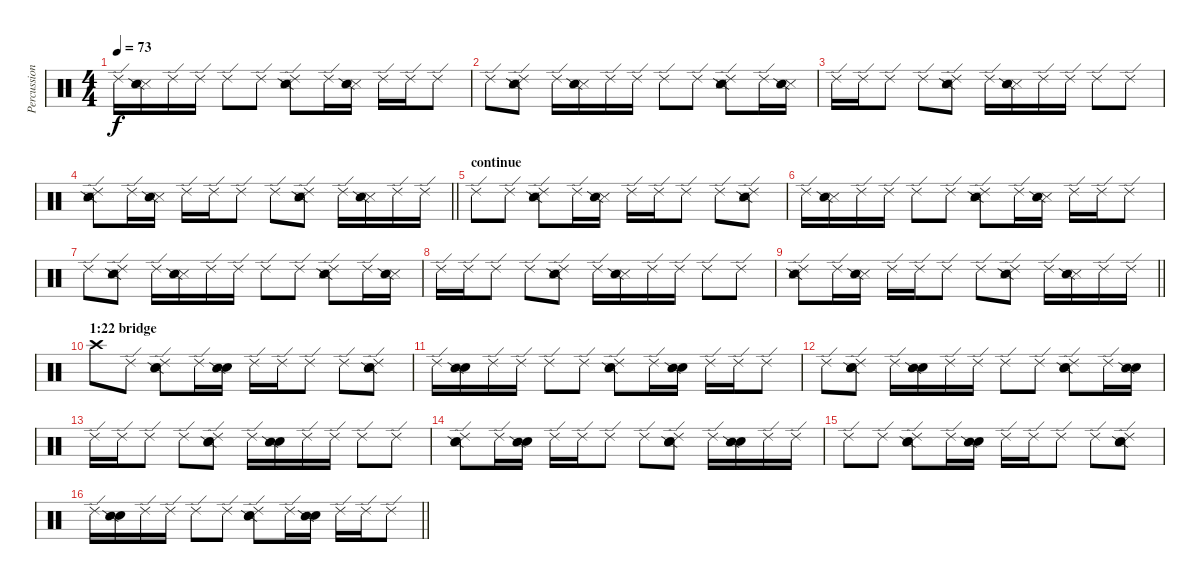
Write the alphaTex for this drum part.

\track ("Percussion" "Percussion") {instrument percussion}
\staff {score}
\articulation defaults
\ts (4 4)
\tempo 73
\clef neutral
\ks c "Ride (edge) 2".16{dy f}
("Snare (side stick) 3" "Snare (side stick) 2").16 "Ride (edge) 2".16 "Ride (edge) 2".16 "Ride (edge) 2".8 "Ride (edge) 2".8 ("Ride (edge) 2" "Snare (side stick) 3" "Snare (side stick) 2").8 "Ride (edge) 2".16 ("Snare (side stick) 3" "Snare (side stick) 2").16 "Ride (edge) 2".16 "Ride (edge) 2".16 "Ride (edge) 2".8 |
"Ride (edge) 2".8 ("Ride (edge) 2" "Snare (side stick) 3" "Snare (side stick) 2").8 "Ride (edge) 2".16 ("Snare (side stick) 3" "Snare (side stick) 2").16 "Ride (edge) 2".16 "Ride (edge) 2".16 "Ride (edge) 2".8 "Ride (edge) 2".8 ("Ride (edge) 2" "Snare (side stick) 3" "Snare (side stick) 2").8 "Ride (edge) 2".16 ("Snare (side stick) 3" "Snare (side stick) 2").16 |
"Ride (edge) 2".16 "Ride (edge) 2".16 "Ride (edge) 2".8 "Ride (edge) 2".8 ("Ride (edge) 2" "Snare (side stick) 3" "Snare (side stick) 2").8 "Ride (edge) 2".16 ("Snare (side stick) 3" "Snare (side stick) 2").16 "Ride (edge) 2".16 "Ride (edge) 2".16 "Ride (edge) 2".8 "Ride (edge) 2".8 |
\barLineRight lightlight
("Ride (edge) 2" "Snare (side stick) 3" "Snare (side stick) 2").8 "Ride (edge) 2".16 ("Snare (side stick) 3" "Snare (side stick) 2").16 "Ride (edge) 2".16 "Ride (edge) 2".16 "Ride (edge) 2".8 "Ride (edge) 2".8 ("Ride (edge) 2" "Snare (side stick) 3" "Snare (side stick) 2").8 "Ride (edge) 2".16 ("Snare (side stick) 3" "Snare (side stick) 2").16 "Ride (edge) 2".16 "Ride (edge) 2".16 |
\section ("" "continue")
"Ride (edge) 2".8 "Ride (edge) 2".8 ("Ride (edge) 2" "Snare (side stick) 3" "Snare (side stick) 2").8 "Ride (edge) 2".16 ("Snare (side stick) 3" "Snare (side stick) 2").16 "Ride (edge) 2".16 "Ride (edge) 2".16 "Ride (edge) 2".8 "Ride (edge) 2".8 ("Ride (edge) 2" "Snare (side stick) 3" "Snare (side stick) 2").8 |
"Ride (edge) 2".16 ("Snare (side stick) 3" "Snare (side stick) 2").16 "Ride (edge) 2".16 "Ride (edge) 2".16 "Ride (edge) 2".8 "Ride (edge) 2".8 ("Ride (edge) 2" "Snare (side stick) 3" "Snare (side stick) 2").8 "Ride (edge) 2".16 ("Snare (side stick) 3" "Snare (side stick) 2").16 "Ride (edge) 2".16 "Ride (edge) 2".16 "Ride (edge) 2".8 |
"Ride (edge) 2".8 ("Ride (edge) 2" "Snare (side stick) 3" "Snare (side stick) 2").8 "Ride (edge) 2".16 ("Snare (side stick) 3" "Snare (side stick) 2").16 "Ride (edge) 2".16 "Ride (edge) 2".16 "Ride (edge) 2".8 "Ride (edge) 2".8 ("Ride (edge) 2" "Snare (side stick) 3" "Snare (side stick) 2").8 "Ride (edge) 2".16 ("Snare (side stick) 3" "Snare (side stick) 2").16 |
"Ride (edge) 2".16 "Ride (edge) 2".16 "Ride (edge) 2".8 "Ride (edge) 2".8 ("Ride (edge) 2" "Snare (side stick) 3" "Snare (side stick) 2").8 "Ride (edge) 2".16 ("Snare (side stick) 3" "Snare (side stick) 2").16 "Ride (edge) 2".16 "Ride (edge) 2".16 "Ride (edge) 2".8 "Ride (edge) 2".8 |
\barLineRight lightlight
("Ride (edge) 2" "Snare (side stick) 3" "Snare (side stick) 2").8 "Ride (edge) 2".16 ("Snare (side stick) 3" "Snare (side stick) 2").16 "Ride (edge) 2".16 "Ride (edge) 2".16 "Ride (edge) 2".8 "Ride (edge) 2".8 ("Ride (edge) 2" "Snare (side stick) 3" "Snare (side stick) 2").8 "Ride (edge) 2".16 ("Snare (side stick) 3" "Snare (side stick) 2").16 "Ride (edge) 2".16 "Ride (edge) 2".16 |
\section ("" "1:22 bridge")
"Crash high (hit)".8 "Ride (edge) 2".8 ("Ride (edge) 2" "Electric Snare (hit)" "Snare (side stick) 2").8 "Ride (edge) 2".16 ("Electric Snare (hit)" "Snare (side stick) 2").16 "Ride (edge) 2".16 "Ride (edge) 2".16 "Ride (edge) 2".8 "Ride (edge) 2".8 ("Ride (edge) 2" "Electric Snare (hit)" "Snare (side stick) 2").8 |
"Ride (edge) 2".16 ("Electric Snare (hit)" "Snare (side stick) 2").16 "Ride (edge) 2".16 "Ride (edge) 2".16 "Ride (edge) 2".8 "Ride (edge) 2".8 ("Ride (edge) 2" "Electric Snare (hit)" "Snare (side stick) 2").8 "Ride (edge) 2".16 ("Electric Snare (hit)" "Snare (side stick) 2").16 "Ride (edge) 2".16 "Ride (edge) 2".16 "Ride (edge) 2".8 |
"Ride (edge) 2".8 ("Ride (edge) 2" "Electric Snare (hit)" "Snare (side stick) 2").8 "Ride (edge) 2".16 ("Electric Snare (hit)" "Snare (side stick) 2").16 "Ride (edge) 2".16 "Ride (edge) 2".16 "Ride (edge) 2".8 "Ride (edge) 2".8 ("Ride (edge) 2" "Electric Snare (hit)" "Snare (side stick) 2").8 "Ride (edge) 2".16 ("Electric Snare (hit)" "Snare (side stick) 2").16 |
"Ride (edge) 2".16 "Ride (edge) 2".16 "Ride (edge) 2".8 "Ride (edge) 2".8 ("Ride (edge) 2" "Electric Snare (hit)" "Snare (side stick) 2").8 "Ride (edge) 2".16 ("Electric Snare (hit)" "Snare (side stick) 2").16 "Ride (edge) 2".16 "Ride (edge) 2".16 "Ride (edge) 2".8 "Ride (edge) 2".8 |
("Ride (edge) 2" "Electric Snare (hit)" "Snare (side stick) 2").8 "Ride (edge) 2".16 ("Electric Snare (hit)" "Snare (side stick) 2").16 "Ride (edge) 2".16 "Ride (edge) 2".16 "Ride (edge) 2".8 "Ride (edge) 2".8 ("Ride (edge) 2" "Electric Snare (hit)" "Snare (side stick) 2").8 "Ride (edge) 2".16 ("Electric Snare (hit)" "Snare (side stick) 2").16 "Ride (edge) 2".16 "Ride (edge) 2".16 |
"Ride (edge) 2".8 "Ride (edge) 2".8 ("Ride (edge) 2" "Electric Snare (hit)" "Snare (side stick) 2").8 "Ride (edge) 2".16 ("Electric Snare (hit)" "Snare (side stick) 2").16 "Ride (edge) 2".16 "Ride (edge) 2".16 "Ride (edge) 2".8 "Ride (edge) 2".8 ("Ride (edge) 2" "Electric Snare (hit)" "Snare (side stick) 2").8 |
\barLineRight lightlight "Ride (edge) 2".16
("Electric Snare (hit)" "Snare (side stick) 2").16 "Ride (edge) 2".16 "Ride (edge) 2".16 "Ride (edge) 2".8 "Ride (edge) 2".8 ("Ride (edge) 2" "Electric Snare (hit)" "Snare (side stick) 2").8 "Ride (edge) 2".16 ("Electric Snare (hit)" "Snare (side stick) 2").16 "Ride (edge) 2".16 "Ride (edge) 2".16 "Ride (edge) 2".8
